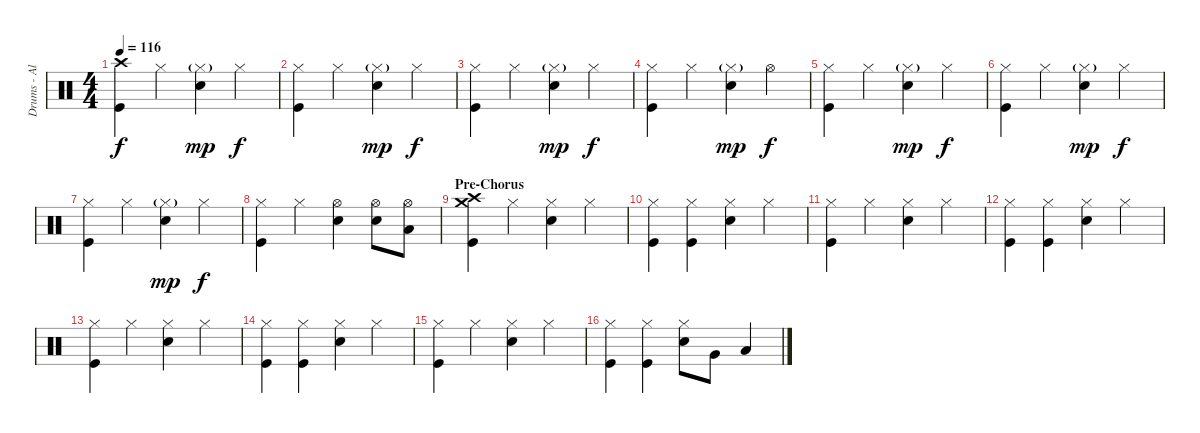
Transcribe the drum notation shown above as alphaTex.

\track ("Drums - Alex Holzwarth" "Drums - Al") {instrument percussion}
\staff {score}
\articulation defaults
\ts (4 4)
\tempo 116
\clef neutral
\ks c
("Crash high (hit)" "Kick (hit)").4{dy f} "Hi-Hat (closed)".4 ("Snare (hit) 2" "Hi-Hat (closed)"{g}).4{dy mp} "Hi-Hat (closed)".4{dy f} |
("Hi-Hat (closed)" "Kick (hit)").4 "Hi-Hat (closed)".4 ("Electric Snare (hit)" "Hi-Hat (closed)"{g}).4{dy mp} "Hi-Hat (closed)".4{dy f} |
("Hi-Hat (closed)" "Kick (hit)").4 "Hi-Hat (closed)".4 ("Electric Snare (hit)" "Hi-Hat (closed)"{g}).4{dy mp} "Hi-Hat (closed)".4{dy f} |
("Hi-Hat (closed)" "Kick (hit)").4 "Hi-Hat (closed)".4 ("Electric Snare (hit)" "Hi-Hat (closed)"{g}).4{dy mp} "Hi-Hat (open)".4{dy f} |
("Hi-Hat (closed)" "Kick (hit)").4 "Hi-Hat (closed)".4 ("Electric Snare (hit)" "Hi-Hat (closed)"{g}).4{dy mp} "Hi-Hat (closed)".4{dy f} |
("Hi-Hat (closed)" "Kick (hit)").4 "Hi-Hat (closed)".4 ("Electric Snare (hit)" "Hi-Hat (closed)"{g}).4{dy mp} "Hi-Hat (closed)".4{dy f} |
("Hi-Hat (closed)" "Kick (hit)").4 "Hi-Hat (closed)".4 ("Electric Snare (hit)" "Hi-Hat (closed)"{g}).4{dy mp} "Hi-Hat (closed)".4{dy f} |
("Hi-Hat (closed)" "Kick (hit)").4 "Hi-Hat (closed)".4 ("Electric Snare (hit)" "Hi-Hat (open)").4 ("Electric Snare (hit)" "Hi-Hat (open)").8 ("Low Floor Tom (hit)" "Hi-Hat (open)").8 |
\section ("" "Pre-Chorus")
("Crash medium (hit)" "Crash high (hit)" "Kick (hit)").4 "Hi-Hat (closed)".4 ("Electric Snare (hit)" "Hi-Hat (closed)").4 "Hi-Hat (closed)".4 |
("Hi-Hat (closed)" "Kick (hit)").4 ("Hi-Hat (closed)" "Kick (hit)").4 ("Electric Snare (hit)" "Hi-Hat (closed)").4 "Hi-Hat (closed)".4 |
("Hi-Hat (closed)" "Kick (hit)").4 "Hi-Hat (closed)".4 ("Electric Snare (hit)" "Hi-Hat (closed)").4 "Hi-Hat (closed)".4 |
("Hi-Hat (closed)" "Kick (hit)").4 ("Hi-Hat (closed)" "Kick (hit)").4 ("Electric Snare (hit)" "Hi-Hat (closed)").4 "Hi-Hat (closed)".4 |
("Hi-Hat (closed)" "Kick (hit)").4 "Hi-Hat (closed)".4 ("Electric Snare (hit)" "Hi-Hat (closed)").4 "Hi-Hat (closed)".4 |
("Hi-Hat (closed)" "Kick (hit)").4 ("Hi-Hat (closed)" "Kick (hit)").4 ("Electric Snare (hit)" "Hi-Hat (closed)").4 "Hi-Hat (closed)".4 |
("Hi-Hat (closed)" "Kick (hit)").4 "Hi-Hat (closed)".4 ("Electric Snare (hit)" "Hi-Hat (closed)").4 "Hi-Hat (closed)".4 |
("Hi-Hat (closed)" "Kick (hit)").4 ("Hi-Hat (closed)" "Kick (hit)").4 ("Electric Snare (hit)" "Hi-Hat (closed)").8 "Very Low Tom (hit)".8 "Low Floor Tom (hit)".4
